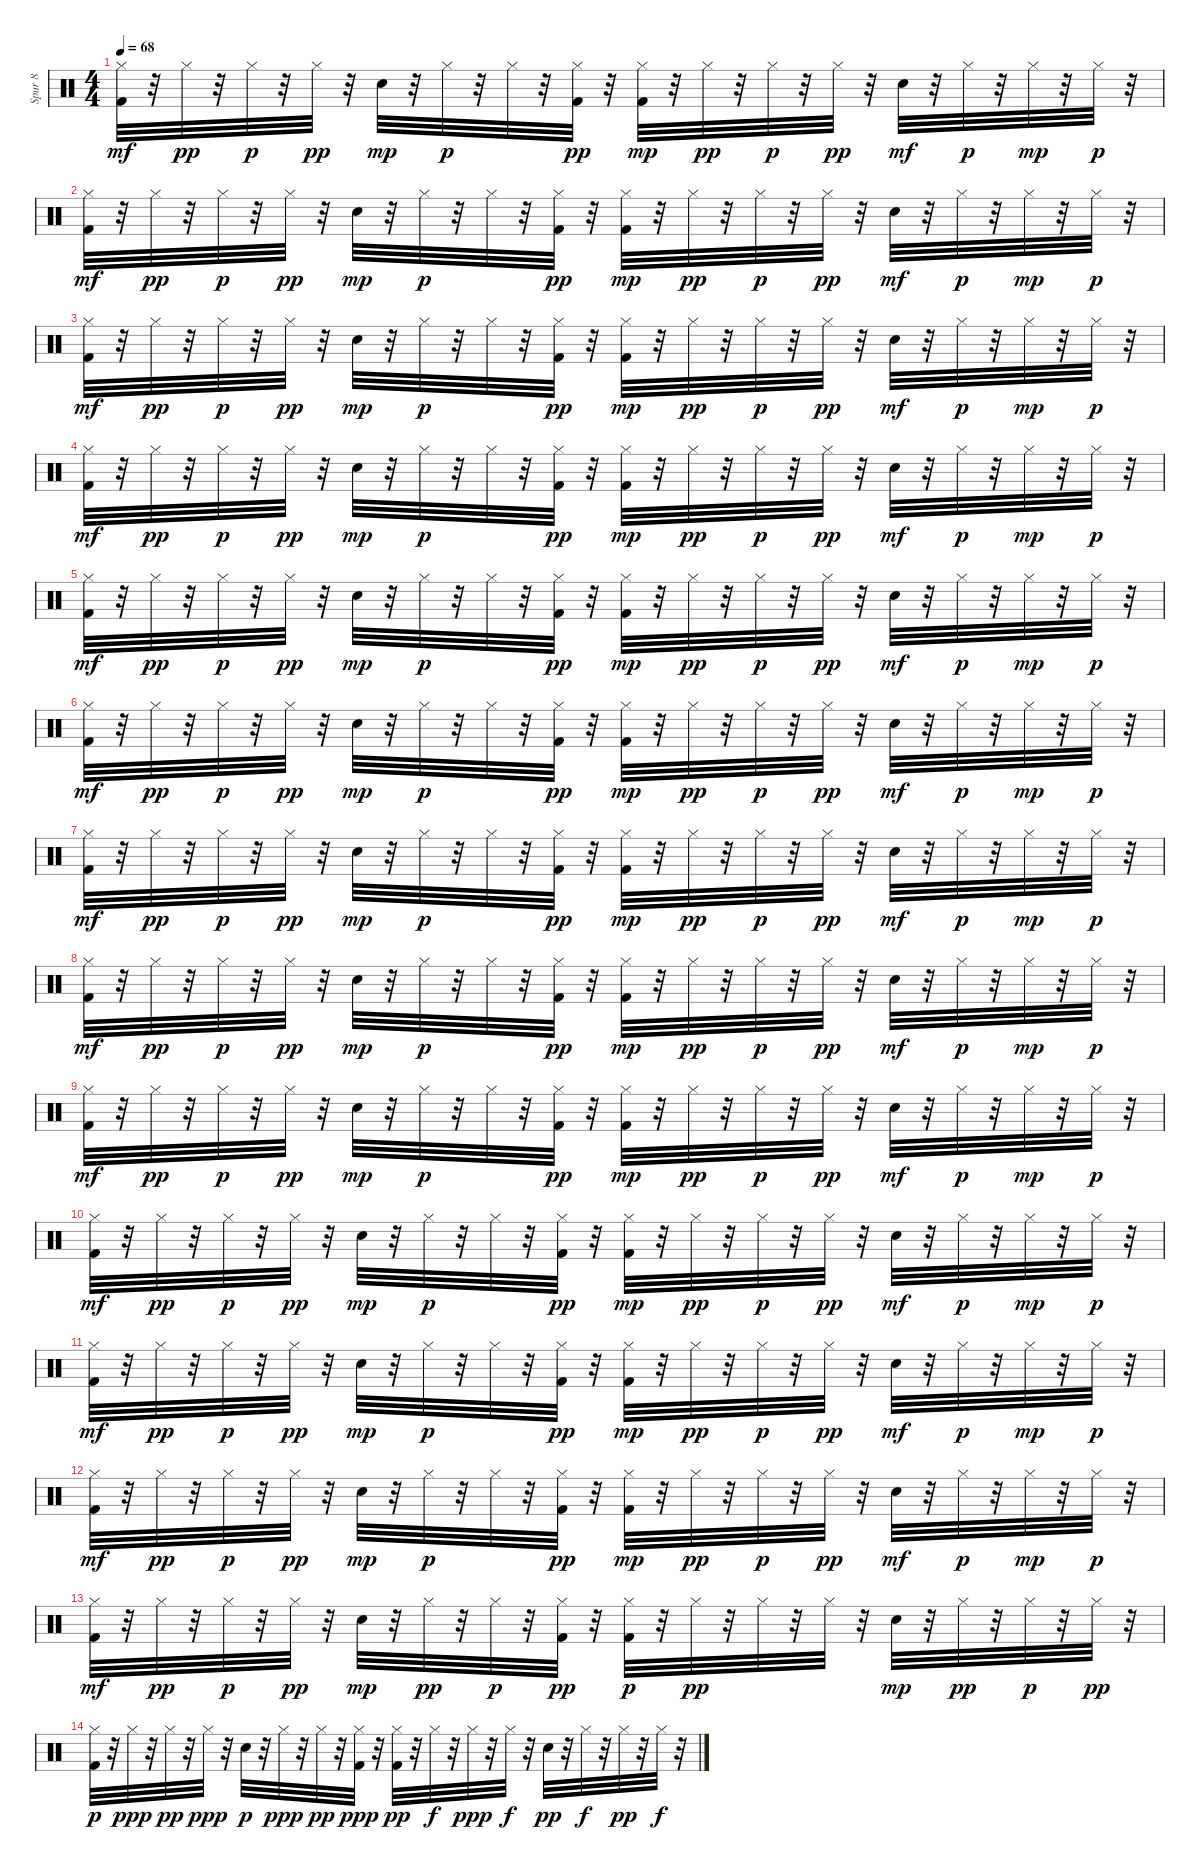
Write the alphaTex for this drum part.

\track ("Spur 8" "Spur 8") {instrument percussion}
\staff {score}
\articulation defaults
\ts (4 4)
\tempo 68
\clef neutral
\ks c
("Hi-Hat (closed)" "Kick (hit) 2").32{dy mf} r.32 "Hi-Hat (closed)".32{dy pp} r.32 "Hi-Hat (closed)".32{dy p} r.32 "Hi-Hat (closed)".32{dy pp} r.32 "Electric Snare (hit)".32{dy mp} r.32 "Hi-Hat (closed)".32{dy p} r.32 "Hi-Hat (closed)".32 r.32 ("Hi-Hat (closed)" "Kick (hit) 2").32{dy pp} r.32 ("Hi-Hat (closed)" "Kick (hit) 2").32{dy mp} r.32 "Hi-Hat (closed)".32{dy pp} r.32 "Hi-Hat (closed)".32{dy p} r.32 "Hi-Hat (closed)".32{dy pp} r.32 "Electric Snare (hit)".32{dy mf} r.32 "Hi-Hat (closed)".32{dy p} r.32 "Hi-Hat (closed)".32{dy mp} r.32 "Hi-Hat (closed)".32{dy p} r.32 |
("Hi-Hat (closed)" "Kick (hit) 2").32{dy mf} r.32 "Hi-Hat (closed)".32{dy pp} r.32 "Hi-Hat (closed)".32{dy p} r.32 "Hi-Hat (closed)".32{dy pp} r.32 "Electric Snare (hit)".32{dy mp} r.32 "Hi-Hat (closed)".32{dy p} r.32 "Hi-Hat (closed)".32 r.32 ("Hi-Hat (closed)" "Kick (hit) 2").32{dy pp} r.32 ("Hi-Hat (closed)" "Kick (hit) 2").32{dy mp} r.32 "Hi-Hat (closed)".32{dy pp} r.32 "Hi-Hat (closed)".32{dy p} r.32 "Hi-Hat (closed)".32{dy pp} r.32 "Electric Snare (hit)".32{dy mf} r.32 "Hi-Hat (closed)".32{dy p} r.32 "Hi-Hat (closed)".32{dy mp} r.32 "Hi-Hat (closed)".32{dy p} r.32 |
("Hi-Hat (closed)" "Kick (hit) 2").32{dy mf} r.32 "Hi-Hat (closed)".32{dy pp} r.32 "Hi-Hat (closed)".32{dy p} r.32 "Hi-Hat (closed)".32{dy pp} r.32 "Electric Snare (hit)".32{dy mp} r.32 "Hi-Hat (closed)".32{dy p} r.32 "Hi-Hat (closed)".32 r.32 ("Hi-Hat (closed)" "Kick (hit) 2").32{dy pp} r.32 ("Hi-Hat (closed)" "Kick (hit) 2").32{dy mp} r.32 "Hi-Hat (closed)".32{dy pp} r.32 "Hi-Hat (closed)".32{dy p} r.32 "Hi-Hat (closed)".32{dy pp} r.32 "Electric Snare (hit)".32{dy mf} r.32 "Hi-Hat (closed)".32{dy p} r.32 "Hi-Hat (closed)".32{dy mp} r.32 "Hi-Hat (closed)".32{dy p} r.32 |
("Hi-Hat (closed)" "Kick (hit) 2").32{dy mf} r.32 "Hi-Hat (closed)".32{dy pp} r.32 "Hi-Hat (closed)".32{dy p} r.32 "Hi-Hat (closed)".32{dy pp} r.32 "Electric Snare (hit)".32{dy mp} r.32 "Hi-Hat (closed)".32{dy p} r.32 "Hi-Hat (closed)".32 r.32 ("Hi-Hat (closed)" "Kick (hit) 2").32{dy pp} r.32 ("Hi-Hat (closed)" "Kick (hit) 2").32{dy mp} r.32 "Hi-Hat (closed)".32{dy pp} r.32 "Hi-Hat (closed)".32{dy p} r.32 "Hi-Hat (closed)".32{dy pp} r.32 "Electric Snare (hit)".32{dy mf} r.32 "Hi-Hat (closed)".32{dy p} r.32 "Hi-Hat (closed)".32{dy mp} r.32 "Hi-Hat (closed)".32{dy p} r.32 |
("Hi-Hat (closed)" "Kick (hit) 2").32{dy mf} r.32 "Hi-Hat (closed)".32{dy pp} r.32 "Hi-Hat (closed)".32{dy p} r.32 "Hi-Hat (closed)".32{dy pp} r.32 "Electric Snare (hit)".32{dy mp} r.32 "Hi-Hat (closed)".32{dy p} r.32 "Hi-Hat (closed)".32 r.32 ("Hi-Hat (closed)" "Kick (hit) 2").32{dy pp} r.32 ("Hi-Hat (closed)" "Kick (hit) 2").32{dy mp} r.32 "Hi-Hat (closed)".32{dy pp} r.32 "Hi-Hat (closed)".32{dy p} r.32 "Hi-Hat (closed)".32{dy pp} r.32 "Electric Snare (hit)".32{dy mf} r.32 "Hi-Hat (closed)".32{dy p} r.32 "Hi-Hat (closed)".32{dy mp} r.32 "Hi-Hat (closed)".32{dy p} r.32 |
("Hi-Hat (closed)" "Kick (hit) 2").32{dy mf} r.32 "Hi-Hat (closed)".32{dy pp} r.32 "Hi-Hat (closed)".32{dy p} r.32 "Hi-Hat (closed)".32{dy pp} r.32 "Electric Snare (hit)".32{dy mp} r.32 "Hi-Hat (closed)".32{dy p} r.32 "Hi-Hat (closed)".32 r.32 ("Hi-Hat (closed)" "Kick (hit) 2").32{dy pp} r.32 ("Hi-Hat (closed)" "Kick (hit) 2").32{dy mp} r.32 "Hi-Hat (closed)".32{dy pp} r.32 "Hi-Hat (closed)".32{dy p} r.32 "Hi-Hat (closed)".32{dy pp} r.32 "Electric Snare (hit)".32{dy mf} r.32 "Hi-Hat (closed)".32{dy p} r.32 "Hi-Hat (closed)".32{dy mp} r.32 "Hi-Hat (closed)".32{dy p} r.32 |
("Hi-Hat (closed)" "Kick (hit) 2").32{dy mf} r.32 "Hi-Hat (closed)".32{dy pp} r.32 "Hi-Hat (closed)".32{dy p} r.32 "Hi-Hat (closed)".32{dy pp} r.32 "Electric Snare (hit)".32{dy mp} r.32 "Hi-Hat (closed)".32{dy p} r.32 "Hi-Hat (closed)".32 r.32 ("Hi-Hat (closed)" "Kick (hit) 2").32{dy pp} r.32 ("Hi-Hat (closed)" "Kick (hit) 2").32{dy mp} r.32 "Hi-Hat (closed)".32{dy pp} r.32 "Hi-Hat (closed)".32{dy p} r.32 "Hi-Hat (closed)".32{dy pp} r.32 "Electric Snare (hit)".32{dy mf} r.32 "Hi-Hat (closed)".32{dy p} r.32 "Hi-Hat (closed)".32{dy mp} r.32 "Hi-Hat (closed)".32{dy p} r.32 |
("Hi-Hat (closed)" "Kick (hit) 2").32{dy mf} r.32 "Hi-Hat (closed)".32{dy pp} r.32 "Hi-Hat (closed)".32{dy p} r.32 "Hi-Hat (closed)".32{dy pp} r.32 "Electric Snare (hit)".32{dy mp} r.32 "Hi-Hat (closed)".32{dy p} r.32 "Hi-Hat (closed)".32 r.32 ("Hi-Hat (closed)" "Kick (hit) 2").32{dy pp} r.32 ("Hi-Hat (closed)" "Kick (hit) 2").32{dy mp} r.32 "Hi-Hat (closed)".32{dy pp} r.32 "Hi-Hat (closed)".32{dy p} r.32 "Hi-Hat (closed)".32{dy pp} r.32 "Electric Snare (hit)".32{dy mf} r.32 "Hi-Hat (closed)".32{dy p} r.32 "Hi-Hat (closed)".32{dy mp} r.32 "Hi-Hat (closed)".32{dy p} r.32 |
("Hi-Hat (closed)" "Kick (hit) 2").32{dy mf} r.32 "Hi-Hat (closed)".32{dy pp} r.32 "Hi-Hat (closed)".32{dy p} r.32 "Hi-Hat (closed)".32{dy pp} r.32 "Electric Snare (hit)".32{dy mp} r.32 "Hi-Hat (closed)".32{dy p} r.32 "Hi-Hat (closed)".32 r.32 ("Hi-Hat (closed)" "Kick (hit) 2").32{dy pp} r.32 ("Hi-Hat (closed)" "Kick (hit) 2").32{dy mp} r.32 "Hi-Hat (closed)".32{dy pp} r.32 "Hi-Hat (closed)".32{dy p} r.32 "Hi-Hat (closed)".32{dy pp} r.32 "Electric Snare (hit)".32{dy mf} r.32 "Hi-Hat (closed)".32{dy p} r.32 "Hi-Hat (closed)".32{dy mp} r.32 "Hi-Hat (closed)".32{dy p} r.32 |
("Hi-Hat (closed)" "Kick (hit) 2").32{dy mf} r.32 "Hi-Hat (closed)".32{dy pp} r.32 "Hi-Hat (closed)".32{dy p} r.32 "Hi-Hat (closed)".32{dy pp} r.32 "Electric Snare (hit)".32{dy mp} r.32 "Hi-Hat (closed)".32{dy p} r.32 "Hi-Hat (closed)".32 r.32 ("Hi-Hat (closed)" "Kick (hit) 2").32{dy pp} r.32 ("Hi-Hat (closed)" "Kick (hit) 2").32{dy mp} r.32 "Hi-Hat (closed)".32{dy pp} r.32 "Hi-Hat (closed)".32{dy p} r.32 "Hi-Hat (closed)".32{dy pp} r.32 "Electric Snare (hit)".32{dy mf} r.32 "Hi-Hat (closed)".32{dy p} r.32 "Hi-Hat (closed)".32{dy mp} r.32 "Hi-Hat (closed)".32{dy p} r.32 |
("Hi-Hat (closed)" "Kick (hit) 2").32{dy mf} r.32 "Hi-Hat (closed)".32{dy pp} r.32 "Hi-Hat (closed)".32{dy p} r.32 "Hi-Hat (closed)".32{dy pp} r.32 "Electric Snare (hit)".32{dy mp} r.32 "Hi-Hat (closed)".32{dy p} r.32 "Hi-Hat (closed)".32 r.32 ("Hi-Hat (closed)" "Kick (hit) 2").32{dy pp} r.32 ("Hi-Hat (closed)" "Kick (hit) 2").32{dy mp} r.32 "Hi-Hat (closed)".32{dy pp} r.32 "Hi-Hat (closed)".32{dy p} r.32 "Hi-Hat (closed)".32{dy pp} r.32 "Electric Snare (hit)".32{dy mf} r.32 "Hi-Hat (closed)".32{dy p} r.32 "Hi-Hat (closed)".32{dy mp} r.32 "Hi-Hat (closed)".32{dy p} r.32 |
("Hi-Hat (closed)" "Kick (hit) 2").32{dy mf} r.32 "Hi-Hat (closed)".32{dy pp} r.32 "Hi-Hat (closed)".32{dy p} r.32 "Hi-Hat (closed)".32{dy pp} r.32 "Electric Snare (hit)".32{dy mp} r.32 "Hi-Hat (closed)".32{dy p} r.32 "Hi-Hat (closed)".32 r.32 ("Hi-Hat (closed)" "Kick (hit) 2").32{dy pp} r.32 ("Hi-Hat (closed)" "Kick (hit) 2").32{dy mp} r.32 "Hi-Hat (closed)".32{dy pp} r.32 "Hi-Hat (closed)".32{dy p} r.32 "Hi-Hat (closed)".32{dy pp} r.32 "Electric Snare (hit)".32{dy mf} r.32 "Hi-Hat (closed)".32{dy p} r.32 "Hi-Hat (closed)".32{dy mp} r.32 "Hi-Hat (closed)".32{dy p} r.32 |
("Hi-Hat (closed)" "Kick (hit) 2").32{dy mf} r.32 "Hi-Hat (closed)".32{dy pp} r.32 "Hi-Hat (closed)".32{dy p} r.32 "Hi-Hat (closed)".32{dy pp} r.32 "Electric Snare (hit)".32{dy mp} r.32 "Hi-Hat (closed)".32{dy pp} r.32 "Hi-Hat (closed)".32{dy p} r.32 ("Hi-Hat (closed)" "Kick (hit) 2").32{dy pp} r.32 ("Hi-Hat (closed)" "Kick (hit) 2").32{dy p} r.32 "Hi-Hat (closed)".32{dy pp} r.32 "Hi-Hat (closed)".32 r.32 "Hi-Hat (closed)".32 r.32 "Electric Snare (hit)".32{dy mp} r.32 "Hi-Hat (closed)".32{dy pp} r.32 "Hi-Hat (closed)".32{dy p} r.32 "Hi-Hat (closed)".32{dy pp} r.32 |
("Hi-Hat (closed)" "Kick (hit) 2").32{dy p} r.32 "Hi-Hat (closed)".32{dy ppp} r.32 "Hi-Hat (closed)".32{dy pp} r.32 "Hi-Hat (closed)".32{dy ppp} r.32 "Electric Snare (hit)".32{dy p} r.32 "Hi-Hat (closed)".32{dy ppp} r.32 "Hi-Hat (closed)".32{dy pp} r.32 ("Hi-Hat (closed)" "Kick (hit) 2").32{dy ppp} r.32 ("Hi-Hat (closed)" "Kick (hit) 2").32{dy pp} r.32 "Hi-Hat (closed)".32{dy f} r.32 "Hi-Hat (closed)".32{dy ppp} r.32 "Hi-Hat (closed)".32{dy f} r.32 "Electric Snare (hit)".32{dy pp} r.32 "Hi-Hat (closed)".32{dy f} r.32 "Hi-Hat (closed)".32{dy pp} r.32 "Hi-Hat (closed)".32{dy f} r.32
